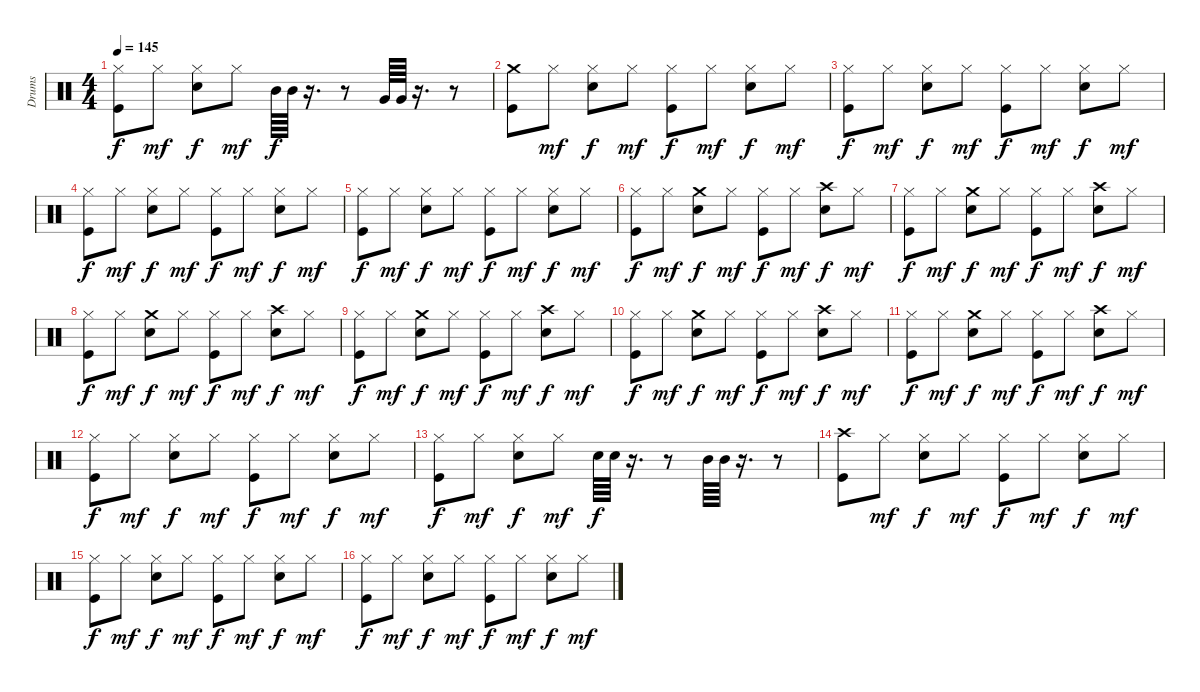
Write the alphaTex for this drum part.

\track ("Drums" "Drums") {instrument percussion}
\staff {score}
\articulation defaults
\ts (4 4)
\tempo 145
\clef neutral
\ks c
("Hi-Hat (closed)" "Kick (hit)").8{dy f} "Hi-Hat (closed)".8{dy mf} ("Hi-Hat (closed)" "Snare (hit) 2").8{dy f} "Hi-Hat (closed)".8{dy mf} "Mid Tom (hit)".64{dy f} "Mid Tom (hit)".64 r.16{d} r.8 "Very Low Tom (hit)".64 "Very Low Tom (hit)".64 r.16{d} r.8 |
("Kick (hit)" "Crash medium (hit)").8 "Hi-Hat (closed)".8{dy mf} ("Hi-Hat (closed)" "Snare (hit) 2").8{dy f} "Hi-Hat (closed)".8{dy mf} ("Hi-Hat (closed)" "Kick (hit)").8{dy f} "Hi-Hat (closed)".8{dy mf} ("Hi-Hat (closed)" "Snare (hit) 2").8{dy f} "Hi-Hat (closed)".8{dy mf} |
("Hi-Hat (closed)" "Kick (hit)").8{dy f} "Hi-Hat (closed)".8{dy mf} ("Hi-Hat (closed)" "Snare (hit) 2").8{dy f} "Hi-Hat (closed)".8{dy mf} ("Hi-Hat (closed)" "Kick (hit)").8{dy f} "Hi-Hat (closed)".8{dy mf} ("Hi-Hat (closed)" "Snare (hit) 2").8{dy f} "Hi-Hat (closed)".8{dy mf} |
("Hi-Hat (closed)" "Kick (hit)").8{dy f} "Hi-Hat (closed)".8{dy mf} ("Hi-Hat (closed)" "Snare (hit) 2").8{dy f} "Hi-Hat (closed)".8{dy mf} ("Hi-Hat (closed)" "Kick (hit)").8{dy f} "Hi-Hat (closed)".8{dy mf} ("Hi-Hat (closed)" "Snare (hit) 2").8{dy f} "Hi-Hat (closed)".8{dy mf} |
("Hi-Hat (closed)" "Kick (hit)").8{dy f} "Hi-Hat (closed)".8{dy mf} ("Hi-Hat (closed)" "Snare (hit) 2").8{dy f} "Hi-Hat (closed)".8{dy mf} ("Hi-Hat (closed)" "Kick (hit)").8{dy f} "Hi-Hat (closed)".8{dy mf} ("Hi-Hat (closed)" "Snare (hit) 2").8{dy f} "Hi-Hat (closed)".8{dy mf} |
("Hi-Hat (closed)" "Kick (hit)").8{dy f} "Hi-Hat (closed)".8{dy mf} ("Snare (hit) 2" "Crash medium (hit)").8{dy f} "Hi-Hat (closed)".8{dy mf} ("Hi-Hat (closed)" "Kick (hit)").8{dy f} "Hi-Hat (closed)".8{dy mf} ("Snare (hit) 2" "Crash high (hit)").8{dy f} "Hi-Hat (closed)".8{dy mf} |
("Hi-Hat (closed)" "Kick (hit)").8{dy f} "Hi-Hat (closed)".8{dy mf} ("Snare (hit) 2" "Crash medium (hit)").8{dy f} "Hi-Hat (closed)".8{dy mf} ("Hi-Hat (closed)" "Kick (hit)").8{dy f} "Hi-Hat (closed)".8{dy mf} ("Snare (hit) 2" "Crash high (hit)").8{dy f} "Hi-Hat (closed)".8{dy mf} |
("Hi-Hat (closed)" "Kick (hit)").8{dy f} "Hi-Hat (closed)".8{dy mf} ("Snare (hit) 2" "Crash medium (hit)").8{dy f} "Hi-Hat (closed)".8{dy mf} ("Hi-Hat (closed)" "Kick (hit)").8{dy f} "Hi-Hat (closed)".8{dy mf} ("Snare (hit) 2" "Crash high (hit)").8{dy f} "Hi-Hat (closed)".8{dy mf} |
("Hi-Hat (closed)" "Kick (hit)").8{dy f} "Hi-Hat (closed)".8{dy mf} ("Snare (hit) 2" "Crash medium (hit)").8{dy f} "Hi-Hat (closed)".8{dy mf} ("Hi-Hat (closed)" "Kick (hit)").8{dy f} "Hi-Hat (closed)".8{dy mf} ("Snare (hit) 2" "Crash high (hit)").8{dy f} "Hi-Hat (closed)".8{dy mf} |
("Hi-Hat (closed)" "Kick (hit)").8{dy f} "Hi-Hat (closed)".8{dy mf} ("Snare (hit) 2" "Crash medium (hit)").8{dy f} "Hi-Hat (closed)".8{dy mf} ("Hi-Hat (closed)" "Kick (hit)").8{dy f} "Hi-Hat (closed)".8{dy mf} ("Snare (hit) 2" "Crash high (hit)").8{dy f} "Hi-Hat (closed)".8{dy mf} |
("Hi-Hat (closed)" "Kick (hit)").8{dy f} "Hi-Hat (closed)".8{dy mf} ("Snare (hit) 2" "Crash medium (hit)").8{dy f} "Hi-Hat (closed)".8{dy mf} ("Hi-Hat (closed)" "Kick (hit)").8{dy f} "Hi-Hat (closed)".8{dy mf} ("Snare (hit) 2" "Crash high (hit)").8{dy f} "Hi-Hat (closed)".8{dy mf} |
("Hi-Hat (closed)" "Kick (hit)").8{dy f} "Hi-Hat (closed)".8{dy mf} ("Hi-Hat (closed)" "Snare (hit) 2").8{dy f} "Hi-Hat (closed)".8{dy mf} ("Hi-Hat (closed)" "Kick (hit)").8{dy f} "Hi-Hat (closed)".8{dy mf} ("Hi-Hat (closed)" "Snare (hit) 2").8{dy f} "Hi-Hat (closed)".8{dy mf} |
("Hi-Hat (closed)" "Kick (hit)").8{dy f} "Hi-Hat (closed)".8{dy mf} ("Hi-Hat (closed)" "Snare (hit) 2").8{dy f} "Hi-Hat (closed)".8{dy mf} "Snare (hit) 2".64{dy f} "Snare (hit) 2".64 r.16{d} r.8 "Mid Tom (hit)".64 "Mid Tom (hit)".64 r.16{d} r.8 |
("Crash high (hit)" "Kick (hit)").8 "Hi-Hat (closed)".8{dy mf} ("Hi-Hat (closed)" "Snare (hit) 2").8{dy f} "Hi-Hat (closed)".8{dy mf} ("Hi-Hat (closed)" "Kick (hit)").8{dy f} "Hi-Hat (closed)".8{dy mf} ("Hi-Hat (closed)" "Snare (hit) 2").8{dy f} "Hi-Hat (closed)".8{dy mf} |
("Hi-Hat (closed)" "Kick (hit)").8{dy f} "Hi-Hat (closed)".8{dy mf} ("Hi-Hat (closed)" "Snare (hit) 2").8{dy f} "Hi-Hat (closed)".8{dy mf} ("Hi-Hat (closed)" "Kick (hit)").8{dy f} "Hi-Hat (closed)".8{dy mf} ("Hi-Hat (closed)" "Snare (hit) 2").8{dy f} "Hi-Hat (closed)".8{dy mf} |
("Hi-Hat (closed)" "Kick (hit)").8{dy f} "Hi-Hat (closed)".8{dy mf} ("Hi-Hat (closed)" "Snare (hit) 2").8{dy f} "Hi-Hat (closed)".8{dy mf} ("Hi-Hat (closed)" "Kick (hit)").8{dy f} "Hi-Hat (closed)".8{dy mf} ("Hi-Hat (closed)" "Snare (hit) 2").8{dy f} "Hi-Hat (closed)".8{dy mf}
